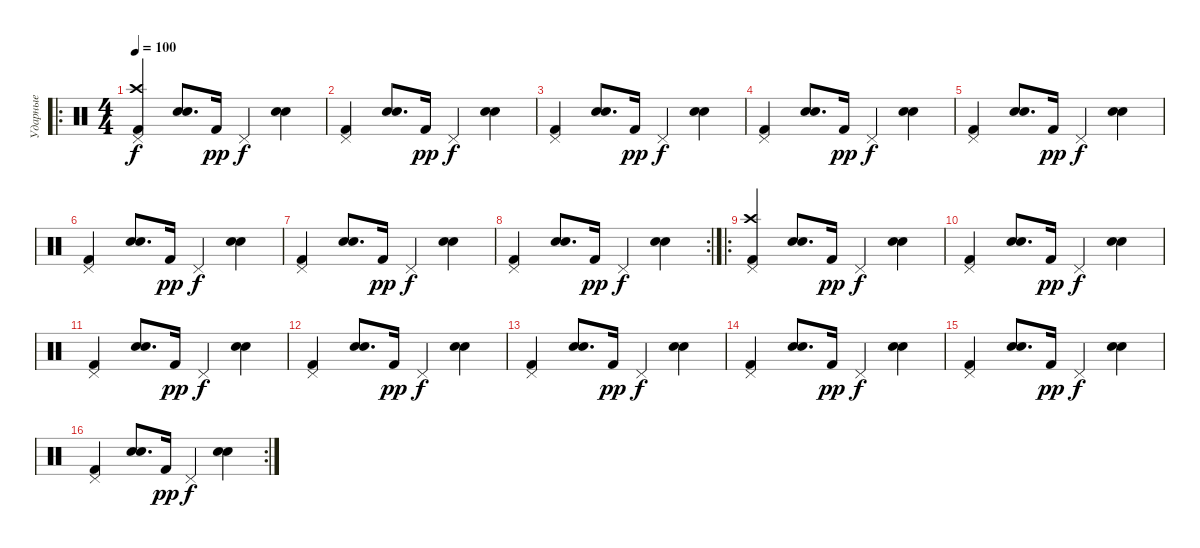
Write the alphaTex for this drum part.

\track ("Ударные" "Ударные") {instrument percussion}
\staff {score}
\articulation defaults
\ro
\ts (4 4)
\tempo 100
\clef neutral
\ks c
("Kick (hit) 2" "Crash high (hit)" "Pedal Hi-Hat (hit)").4{dy f} ("Hand Clap (hit)" "Electric Snare (hit)").8{d} "Kick (hit) 2".16{dy pp} "Pedal Hi-Hat (hit)".4{dy f} ("Hand Clap (hit)" "Electric Snare (hit)").4 |
("Kick (hit) 2" "Pedal Hi-Hat (hit)").4 ("Hand Clap (hit)" "Electric Snare (hit)").8{d} "Kick (hit) 2".16{dy pp} "Pedal Hi-Hat (hit)".4{dy f} ("Hand Clap (hit)" "Electric Snare (hit)").4 |
("Kick (hit) 2" "Pedal Hi-Hat (hit)").4 ("Hand Clap (hit)" "Electric Snare (hit)").8{d} "Kick (hit) 2".16{dy pp} "Pedal Hi-Hat (hit)".4{dy f} ("Hand Clap (hit)" "Electric Snare (hit)").4 |
("Kick (hit) 2" "Pedal Hi-Hat (hit)").4 ("Hand Clap (hit)" "Electric Snare (hit)").8{d} "Kick (hit) 2".16{dy pp} "Pedal Hi-Hat (hit)".4{dy f} ("Hand Clap (hit)" "Electric Snare (hit)").4 |
("Kick (hit) 2" "Pedal Hi-Hat (hit)").4 ("Hand Clap (hit)" "Electric Snare (hit)").8{d} "Kick (hit) 2".16{dy pp} "Pedal Hi-Hat (hit)".4{dy f} ("Hand Clap (hit)" "Electric Snare (hit)").4 |
("Kick (hit) 2" "Pedal Hi-Hat (hit)").4 ("Hand Clap (hit)" "Electric Snare (hit)").8{d} "Kick (hit) 2".16{dy pp} "Pedal Hi-Hat (hit)".4{dy f} ("Hand Clap (hit)" "Electric Snare (hit)").4 |
("Kick (hit) 2" "Pedal Hi-Hat (hit)").4 ("Hand Clap (hit)" "Electric Snare (hit)").8{d} "Kick (hit) 2".16{dy pp} "Pedal Hi-Hat (hit)".4{dy f} ("Hand Clap (hit)" "Electric Snare (hit)").4 |
\rc 2
("Kick (hit) 2" "Pedal Hi-Hat (hit)").4 ("Hand Clap (hit)" "Electric Snare (hit)").8{d} "Kick (hit) 2".16{dy pp} "Pedal Hi-Hat (hit)".4{dy f} ("Hand Clap (hit)" "Electric Snare (hit)").4 |
\ro
("Kick (hit) 2" "Crash high (hit)" "Pedal Hi-Hat (hit)").4 ("Hand Clap (hit)" "Electric Snare (hit)").8{d} "Kick (hit) 2".16{dy pp} "Pedal Hi-Hat (hit)".4{dy f} ("Hand Clap (hit)" "Electric Snare (hit)").4 |
("Kick (hit) 2" "Pedal Hi-Hat (hit)").4 ("Hand Clap (hit)" "Electric Snare (hit)").8{d} "Kick (hit) 2".16{dy pp} "Pedal Hi-Hat (hit)".4{dy f} ("Hand Clap (hit)" "Electric Snare (hit)").4 |
("Kick (hit) 2" "Pedal Hi-Hat (hit)").4 ("Hand Clap (hit)" "Electric Snare (hit)").8{d} "Kick (hit) 2".16{dy pp} "Pedal Hi-Hat (hit)".4{dy f} ("Hand Clap (hit)" "Electric Snare (hit)").4 |
("Kick (hit) 2" "Pedal Hi-Hat (hit)").4 ("Hand Clap (hit)" "Electric Snare (hit)").8{d} "Kick (hit) 2".16{dy pp} "Pedal Hi-Hat (hit)".4{dy f} ("Hand Clap (hit)" "Electric Snare (hit)").4 |
("Kick (hit) 2" "Pedal Hi-Hat (hit)").4 ("Hand Clap (hit)" "Electric Snare (hit)").8{d} "Kick (hit) 2".16{dy pp} "Pedal Hi-Hat (hit)".4{dy f} ("Hand Clap (hit)" "Electric Snare (hit)").4 |
("Kick (hit) 2" "Pedal Hi-Hat (hit)").4 ("Hand Clap (hit)" "Electric Snare (hit)").8{d} "Kick (hit) 2".16{dy pp} "Pedal Hi-Hat (hit)".4{dy f} ("Hand Clap (hit)" "Electric Snare (hit)").4 |
("Kick (hit) 2" "Pedal Hi-Hat (hit)").4 ("Hand Clap (hit)" "Electric Snare (hit)").8{d} "Kick (hit) 2".16{dy pp} "Pedal Hi-Hat (hit)".4{dy f} ("Hand Clap (hit)" "Electric Snare (hit)").4 |
\rc 2
("Kick (hit) 2" "Pedal Hi-Hat (hit)").4 ("Hand Clap (hit)" "Electric Snare (hit)").8{d} "Kick (hit) 2".16{dy pp} "Pedal Hi-Hat (hit)".4{dy f} ("Hand Clap (hit)" "Electric Snare (hit)").4
